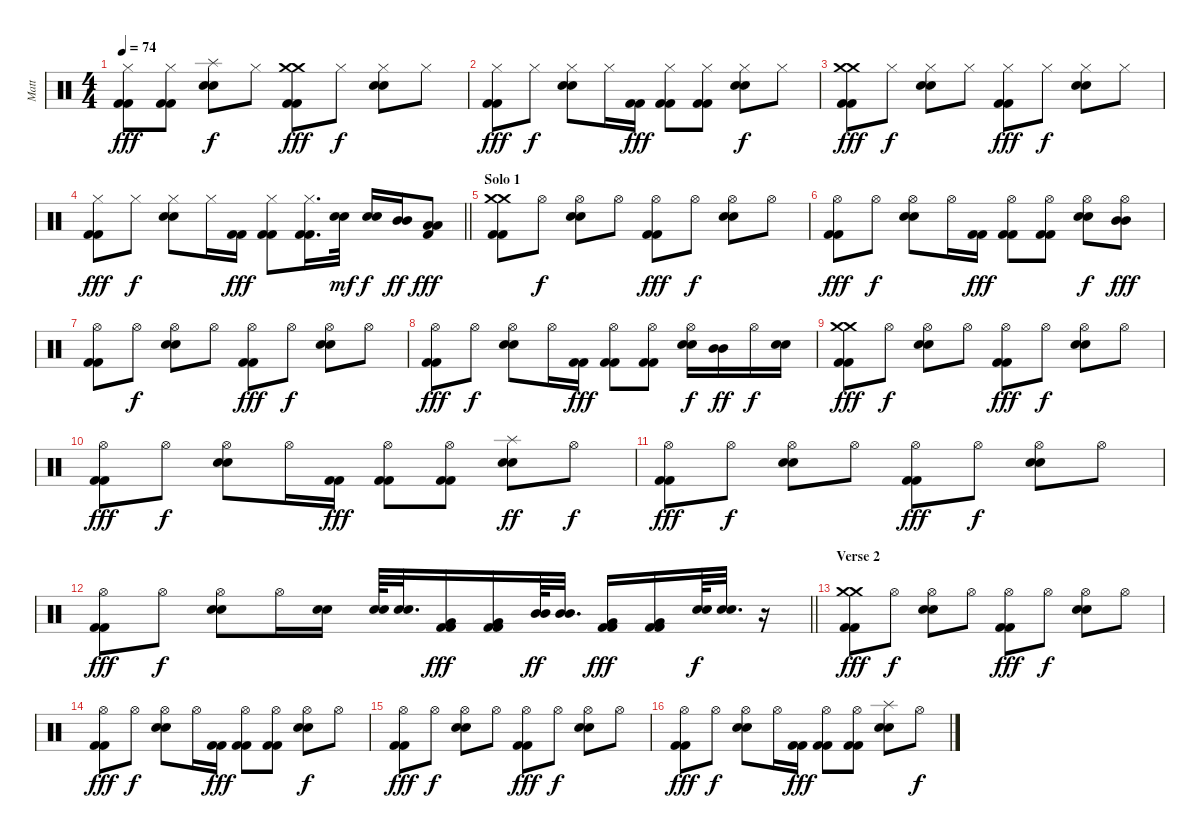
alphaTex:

\track ("Matt" "Matt") {instrument percussion}
\staff {score}
\articulation defaults
\ts (4 4)
\tempo 74
\clef neutral
\ks c
("Hi-Hat (closed)" "Kick (hit) 2" "Kick (hit) 2").8{dy fff} ("Hi-Hat (closed)" "Kick (hit) 2" "Kick (hit) 2").8 ("Splash (hit)" "Electric Snare (hit)" "Electric Snare (hit)").8{dy f} "Hi-Hat (closed)".8 ("Crash medium (hit)" "Crash medium (hit)" "Kick (hit) 2" "Kick (hit) 2").8{dy fff} "Hi-Hat (closed)".8{dy f} ("Hi-Hat (closed)" "Electric Snare (hit)" "Electric Snare (hit)").8 "Hi-Hat (closed)".8 |
("Hi-Hat (closed)" "Kick (hit) 2" "Kick (hit) 2").8{dy fff} "Hi-Hat (closed)".8{dy f} ("Hi-Hat (closed)" "Electric Snare (hit)" "Electric Snare (hit)").8 "Hi-Hat (closed)".16 ("Kick (hit) 2" "Kick (hit) 2").16{dy fff} ("Hi-Hat (closed)" "Kick (hit) 2" "Kick (hit) 2").8 ("Hi-Hat (closed)" "Kick (hit) 2" "Kick (hit) 2").8 ("Hi-Hat (closed)" "Electric Snare (hit)" "Electric Snare (hit)").8{dy f} "Hi-Hat (closed)".8 |
("Crash medium (hit)" "Crash medium (hit)" "Kick (hit) 2" "Kick (hit) 2").8{dy fff} "Hi-Hat (closed)".8{dy f} ("Hi-Hat (closed)" "Electric Snare (hit)" "Electric Snare (hit)").8 "Hi-Hat (closed)".8 ("Hi-Hat (closed)" "Kick (hit) 2" "Kick (hit) 2").8{dy fff} "Hi-Hat (closed)".8{dy f} ("Hi-Hat (closed)" "Electric Snare (hit)" "Electric Snare (hit)").8 "Hi-Hat (closed)".8 |
\barLineRight lightlight
("Hi-Hat (closed)" "Kick (hit) 2" "Kick (hit) 2").8{dy fff} "Hi-Hat (closed)".8{dy f} ("Hi-Hat (closed)" "Electric Snare (hit)" "Electric Snare (hit)").8 "Hi-Hat (closed)".16 ("Kick (hit) 2" "Kick (hit) 2").16{dy fff} ("Hi-Hat (closed)" "Kick (hit) 2" "Kick (hit) 2").8 ("Hi-Hat (closed)" "Kick (hit) 2" "Kick (hit) 2").16{d} ("Electric Snare (hit)" "Electric Snare (hit)").32{dy mf} ("Electric Snare (hit)" "Electric Snare (hit)").16{dy f} ("Mid Tom (hit)" "Mid Tom (hit)").16{dy ff} ("Low Tom (hit)" "Low Tom (hit)" "Kick (hit) 2").8{dy fff} |
\section ("" "Solo 1")
("Crash medium (hit)" "Crash medium (hit)" "Kick (hit) 2" "Kick (hit) 2").8 "Hi-Hat (open)".8{dy f} ("Hi-Hat (open)" "Electric Snare (hit)" "Electric Snare (hit)").8 "Hi-Hat (open)".8 ("Hi-Hat (open)" "Kick (hit) 2" "Kick (hit) 2").8{dy fff} "Hi-Hat (open)".8{dy f} ("Hi-Hat (open)" "Electric Snare (hit)" "Electric Snare (hit)").8 "Hi-Hat (open)".8 |
("Hi-Hat (open)" "Kick (hit) 2" "Kick (hit) 2").8{dy fff} "Hi-Hat (open)".8{dy f} ("Hi-Hat (open)" "Electric Snare (hit)" "Electric Snare (hit)").8 "Hi-Hat (open)".16 ("Kick (hit) 2" "Kick (hit) 2").16{dy fff} ("Hi-Hat (open)" "Kick (hit) 2" "Kick (hit) 2").8 ("Hi-Hat (open)" "Kick (hit) 2" "Kick (hit) 2").8 ("Hi-Hat (open)" "Electric Snare (hit)" "Electric Snare (hit)").8{dy f} ("Hi-Hat (open)" "Mid Tom (hit)" "Mid Tom (hit)").8{dy fff} |
("Hi-Hat (open)" "Kick (hit) 2" "Kick (hit) 2").8 "Hi-Hat (open)".8{dy f} ("Hi-Hat (open)" "Electric Snare (hit)" "Electric Snare (hit)").8 "Hi-Hat (open)".8 ("Hi-Hat (open)" "Kick (hit) 2" "Kick (hit) 2").8{dy fff} "Hi-Hat (open)".8{dy f} ("Hi-Hat (open)" "Electric Snare (hit)" "Electric Snare (hit)").8 "Hi-Hat (open)".8 |
("Hi-Hat (open)" "Kick (hit) 2" "Kick (hit) 2").8{dy fff} "Hi-Hat (open)".8{dy f} ("Hi-Hat (open)" "Electric Snare (hit)" "Electric Snare (hit)").8 "Hi-Hat (open)".16 ("Kick (hit) 2" "Kick (hit) 2").16{dy fff} ("Hi-Hat (open)" "Kick (hit) 2" "Kick (hit) 2").8 ("Hi-Hat (open)" "Kick (hit) 2" "Kick (hit) 2").8 ("Hi-Hat (open)" "Electric Snare (hit)" "Electric Snare (hit)").16{dy f} ("Mid Tom (hit)" "Mid Tom (hit)").16{dy ff} "Hi-Hat (open)".16{dy f} ("Electric Snare (hit)" "Electric Snare (hit)").16 |
("Crash medium (hit)" "Crash medium (hit)" "Kick (hit) 2" "Kick (hit) 2").8{dy fff} "Hi-Hat (open)".8{dy f} ("Hi-Hat (open)" "Electric Snare (hit)" "Electric Snare (hit)").8 "Hi-Hat (open)".8 ("Hi-Hat (open)" "Kick (hit) 2" "Kick (hit) 2").8{dy fff} "Hi-Hat (open)".8{dy f} ("Hi-Hat (open)" "Electric Snare (hit)" "Electric Snare (hit)").8 "Hi-Hat (open)".8 |
("Hi-Hat (open)" "Kick (hit) 2" "Kick (hit) 2").8{dy fff} "Hi-Hat (open)".8{dy f} ("Hi-Hat (open)" "Electric Snare (hit)" "Electric Snare (hit)").8 "Hi-Hat (open)".16 ("Kick (hit) 2" "Kick (hit) 2").16{dy fff} ("Hi-Hat (open)" "Kick (hit) 2" "Kick (hit) 2").8 ("Hi-Hat (open)" "Kick (hit) 2" "Kick (hit) 2").8 ("Splash (hit)" "Electric Snare (hit)" "Electric Snare (hit)").8{dy ff} "Hi-Hat (open)".8{dy f} |
("Hi-Hat (open)" "Kick (hit) 2" "Kick (hit) 2").8{dy fff} "Hi-Hat (open)".8{dy f} ("Hi-Hat (open)" "Electric Snare (hit)" "Electric Snare (hit)").8 "Hi-Hat (open)".8 ("Hi-Hat (open)" "Kick (hit) 2" "Kick (hit) 2").8{dy fff} "Hi-Hat (open)".8{dy f} ("Hi-Hat (open)" "Electric Snare (hit)" "Electric Snare (hit)").8 "Hi-Hat (open)".8 |
\barLineRight lightlight
("Hi-Hat (open)" "Kick (hit) 2" "Kick (hit) 2").8{dy fff} "Hi-Hat (open)".8{dy f} ("Hi-Hat (open)" "Electric Snare (hit)" "Electric Snare (hit)").8 "Hi-Hat (open)".16 ("Electric Snare (hit)" "Electric Snare (hit)").16 ("Electric Snare (hit)" "Electric Snare (hit)").64 ("Electric Snare (hit)" "Electric Snare (hit)").32{d} ("Very Low Tom (hit)" "Kick (hit) 2" "Kick (hit) 2").16{dy fff} ("Very Low Tom (hit)" "Kick (hit) 2" "Kick (hit) 2").16 ("Mid Tom (hit)" "Mid Tom (hit)").64{dy ff} ("Mid Tom (hit)" "Mid Tom (hit)").32{d} ("Very Low Tom (hit)" "Kick (hit) 2" "Kick (hit) 2").16{dy fff} ("Very Low Tom (hit)" "Kick (hit) 2" "Kick (hit) 2").16 ("Electric Snare (hit)" "Electric Snare (hit)").64{dy f} ("Electric Snare (hit)" "Electric Snare (hit)").32{d} r.16 |
\section ("" "Verse 2")
("Crash medium (hit)" "Crash medium (hit)" "Kick (hit) 2" "Kick (hit) 2").8{dy fff} "Hi-Hat (open)".8{dy f} ("Hi-Hat (open)" "Electric Snare (hit)" "Electric Snare (hit)").8 "Hi-Hat (open)".8 ("Hi-Hat (open)" "Kick (hit) 2" "Kick (hit) 2").8{dy fff} "Hi-Hat (open)".8{dy f} ("Hi-Hat (open)" "Electric Snare (hit)" "Electric Snare (hit)").8 "Hi-Hat (open)".8 |
("Hi-Hat (open)" "Kick (hit) 2" "Kick (hit) 2").8{dy fff} "Hi-Hat (open)".8{dy f} ("Hi-Hat (open)" "Electric Snare (hit)" "Electric Snare (hit)").8 "Hi-Hat (open)".16 ("Kick (hit) 2" "Kick (hit) 2").16{dy fff} ("Hi-Hat (open)" "Kick (hit) 2" "Kick (hit) 2").8 ("Hi-Hat (open)" "Kick (hit) 2" "Kick (hit) 2").8 ("Hi-Hat (open)" "Electric Snare (hit)" "Electric Snare (hit)").8{dy f} "Hi-Hat (open)".8 |
("Hi-Hat (open)" "Kick (hit) 2" "Kick (hit) 2").8{dy fff} "Hi-Hat (open)".8{dy f} ("Hi-Hat (open)" "Electric Snare (hit)" "Electric Snare (hit)").8 "Hi-Hat (open)".8 ("Hi-Hat (open)" "Kick (hit) 2" "Kick (hit) 2").8{dy fff} "Hi-Hat (open)".8{dy f} ("Hi-Hat (open)" "Electric Snare (hit)" "Electric Snare (hit)").8 "Hi-Hat (open)".8 |
("Hi-Hat (open)" "Kick (hit) 2" "Kick (hit) 2").8{dy fff} "Hi-Hat (open)".8{dy f} ("Hi-Hat (open)" "Electric Snare (hit)" "Electric Snare (hit)").8 "Hi-Hat (open)".16 ("Kick (hit) 2" "Kick (hit) 2").16{dy fff} ("Hi-Hat (open)" "Kick (hit) 2" "Kick (hit) 2").8 ("Hi-Hat (open)" "Kick (hit) 2" "Kick (hit) 2").8 ("Splash (hit)" "Electric Snare (hit)" "Electric Snare (hit)").8 "Hi-Hat (open)".8{dy f}
